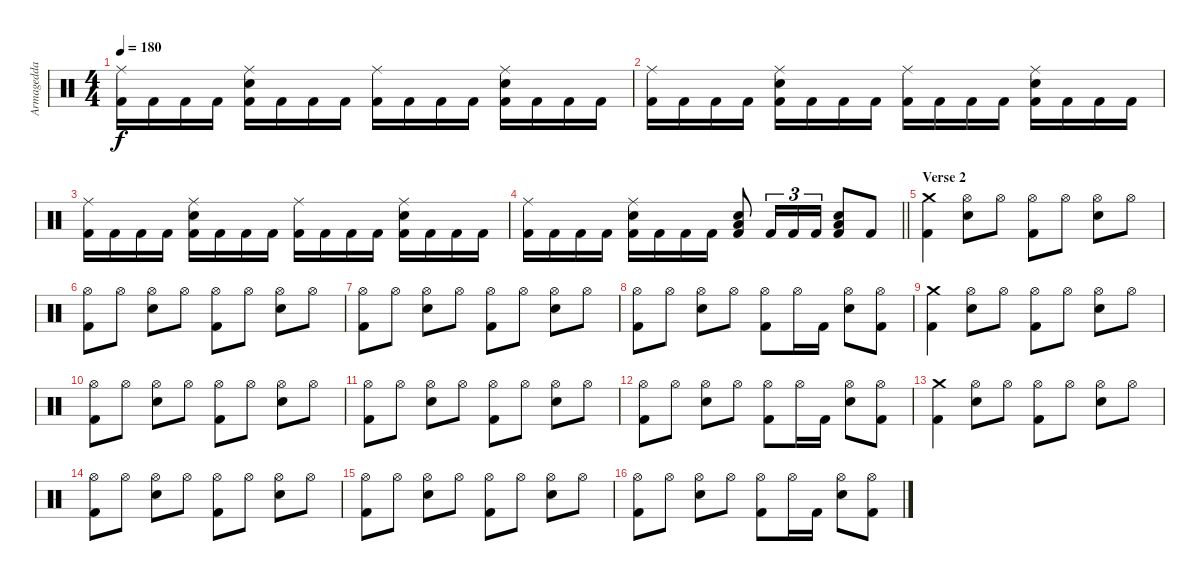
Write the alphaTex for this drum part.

\track ("Armagedda" "Armagedda") {instrument percussion}
\staff {score}
\articulation defaults
\ts (4 4)
\tempo 180
\clef neutral
\ks c
("Ride (middle)" "Kick (hit) 2").16{dy f} "Kick (hit) 2".16 "Kick (hit) 2".16 "Kick (hit) 2".16 ("Ride (middle)" "Electric Snare (hit)" "Kick (hit) 2").16 "Kick (hit) 2".16 "Kick (hit) 2".16 "Kick (hit) 2".16 ("Ride (middle)" "Kick (hit) 2").16 "Kick (hit) 2".16 "Kick (hit) 2".16 "Kick (hit) 2".16 ("Ride (middle)" "Electric Snare (hit)" "Kick (hit) 2").16 "Kick (hit) 2".16 "Kick (hit) 2".16 "Kick (hit) 2".16 |
("Ride (middle)" "Kick (hit) 2").16 "Kick (hit) 2".16 "Kick (hit) 2".16 "Kick (hit) 2".16 ("Ride (middle)" "Electric Snare (hit)" "Kick (hit) 2").16 "Kick (hit) 2".16 "Kick (hit) 2".16 "Kick (hit) 2".16 ("Ride (middle)" "Kick (hit) 2").16 "Kick (hit) 2".16 "Kick (hit) 2".16 "Kick (hit) 2".16 ("Ride (middle)" "Electric Snare (hit)" "Kick (hit) 2").16 "Kick (hit) 2".16 "Kick (hit) 2".16 "Kick (hit) 2".16 |
("Ride (middle)" "Kick (hit) 2").16 "Kick (hit) 2".16 "Kick (hit) 2".16 "Kick (hit) 2".16 ("Ride (middle)" "Electric Snare (hit)" "Kick (hit) 2").16 "Kick (hit) 2".16 "Kick (hit) 2".16 "Kick (hit) 2".16 ("Ride (middle)" "Kick (hit) 2").16 "Kick (hit) 2".16 "Kick (hit) 2".16 "Kick (hit) 2".16 ("Ride (middle)" "Electric Snare (hit)" "Kick (hit) 2").16 "Kick (hit) 2".16 "Kick (hit) 2".16 "Kick (hit) 2".16 |
\barLineRight lightlight
("Ride (middle)" "Kick (hit) 2").16 "Kick (hit) 2".16 "Kick (hit) 2".16 "Kick (hit) 2".16 ("Ride (middle)" "Electric Snare (hit)" "Kick (hit) 2").16 "Kick (hit) 2".16 "Kick (hit) 2".16 "Kick (hit) 2".16 ("Electric Snare (hit)" "Low Floor Tom (hit)" "Kick (hit) 2").8 "Kick (hit) 2".16{tu (3 2)} "Kick (hit) 2".16{tu (3 2)} "Kick (hit) 2".16{tu (3 2)} ("Electric Snare (hit)" "Low Floor Tom (hit)" "Kick (hit) 2").8 "Kick (hit) 2".8 |
\section ("" "Verse 2")
("Crash medium (hit)" "Kick (hit) 2").4 ("Hi-Hat (open)" "Electric Snare (hit)").8 "Hi-Hat (open)".8 ("Hi-Hat (open)" "Kick (hit) 2").8 "Hi-Hat (open)".8 ("Hi-Hat (open)" "Electric Snare (hit)").8 "Hi-Hat (open)".8 |
("Hi-Hat (open)" "Kick (hit) 2").8 "Hi-Hat (open)".8 ("Hi-Hat (open)" "Electric Snare (hit)").8 "Hi-Hat (open)".8 ("Hi-Hat (open)" "Kick (hit) 2").8 "Hi-Hat (open)".8 ("Hi-Hat (open)" "Electric Snare (hit)").8 "Hi-Hat (open)".8 |
("Hi-Hat (open)" "Kick (hit) 2").8 "Hi-Hat (open)".8 ("Hi-Hat (open)" "Electric Snare (hit)").8 "Hi-Hat (open)".8 ("Hi-Hat (open)" "Kick (hit) 2").8 "Hi-Hat (open)".8 ("Hi-Hat (open)" "Electric Snare (hit)").8 "Hi-Hat (open)".8 |
("Hi-Hat (open)" "Kick (hit) 2").8 "Hi-Hat (open)".8 ("Hi-Hat (open)" "Electric Snare (hit)").8 "Hi-Hat (open)".8 ("Hi-Hat (open)" "Kick (hit) 2").8 "Hi-Hat (open)".16 "Kick (hit) 2".16 ("Hi-Hat (open)" "Electric Snare (hit)").8 ("Hi-Hat (open)" "Kick (hit) 2").8 |
("Crash medium (hit)" "Kick (hit) 2").4 ("Hi-Hat (open)" "Electric Snare (hit)").8 "Hi-Hat (open)".8 ("Hi-Hat (open)" "Kick (hit) 2").8 "Hi-Hat (open)".8 ("Hi-Hat (open)" "Electric Snare (hit)").8 "Hi-Hat (open)".8 |
("Hi-Hat (open)" "Kick (hit) 2").8 "Hi-Hat (open)".8 ("Hi-Hat (open)" "Electric Snare (hit)").8 "Hi-Hat (open)".8 ("Hi-Hat (open)" "Kick (hit) 2").8 "Hi-Hat (open)".8 ("Hi-Hat (open)" "Electric Snare (hit)").8 "Hi-Hat (open)".8 |
("Hi-Hat (open)" "Kick (hit) 2").8 "Hi-Hat (open)".8 ("Hi-Hat (open)" "Electric Snare (hit)").8 "Hi-Hat (open)".8 ("Hi-Hat (open)" "Kick (hit) 2").8 "Hi-Hat (open)".8 ("Hi-Hat (open)" "Electric Snare (hit)").8 "Hi-Hat (open)".8 |
("Hi-Hat (open)" "Kick (hit) 2").8 "Hi-Hat (open)".8 ("Hi-Hat (open)" "Electric Snare (hit)").8 "Hi-Hat (open)".8 ("Hi-Hat (open)" "Kick (hit) 2").8 "Hi-Hat (open)".16 "Kick (hit) 2".16 ("Hi-Hat (open)" "Electric Snare (hit)").8 ("Hi-Hat (open)" "Kick (hit) 2").8 |
("Crash medium (hit)" "Kick (hit) 2").4 ("Hi-Hat (open)" "Electric Snare (hit)").8 "Hi-Hat (open)".8 ("Hi-Hat (open)" "Kick (hit) 2").8 "Hi-Hat (open)".8 ("Hi-Hat (open)" "Electric Snare (hit)").8 "Hi-Hat (open)".8 |
("Hi-Hat (open)" "Kick (hit) 2").8 "Hi-Hat (open)".8 ("Hi-Hat (open)" "Electric Snare (hit)").8 "Hi-Hat (open)".8 ("Hi-Hat (open)" "Kick (hit) 2").8 "Hi-Hat (open)".8 ("Hi-Hat (open)" "Electric Snare (hit)").8 "Hi-Hat (open)".8 |
("Hi-Hat (open)" "Kick (hit) 2").8 "Hi-Hat (open)".8 ("Hi-Hat (open)" "Electric Snare (hit)").8 "Hi-Hat (open)".8 ("Hi-Hat (open)" "Kick (hit) 2").8 "Hi-Hat (open)".8 ("Hi-Hat (open)" "Electric Snare (hit)").8 "Hi-Hat (open)".8 |
("Hi-Hat (open)" "Kick (hit) 2").8 "Hi-Hat (open)".8 ("Hi-Hat (open)" "Electric Snare (hit)").8 "Hi-Hat (open)".8 ("Hi-Hat (open)" "Kick (hit) 2").8 "Hi-Hat (open)".16 "Kick (hit) 2".16 ("Hi-Hat (open)" "Electric Snare (hit)").8 ("Hi-Hat (open)" "Kick (hit) 2").8
